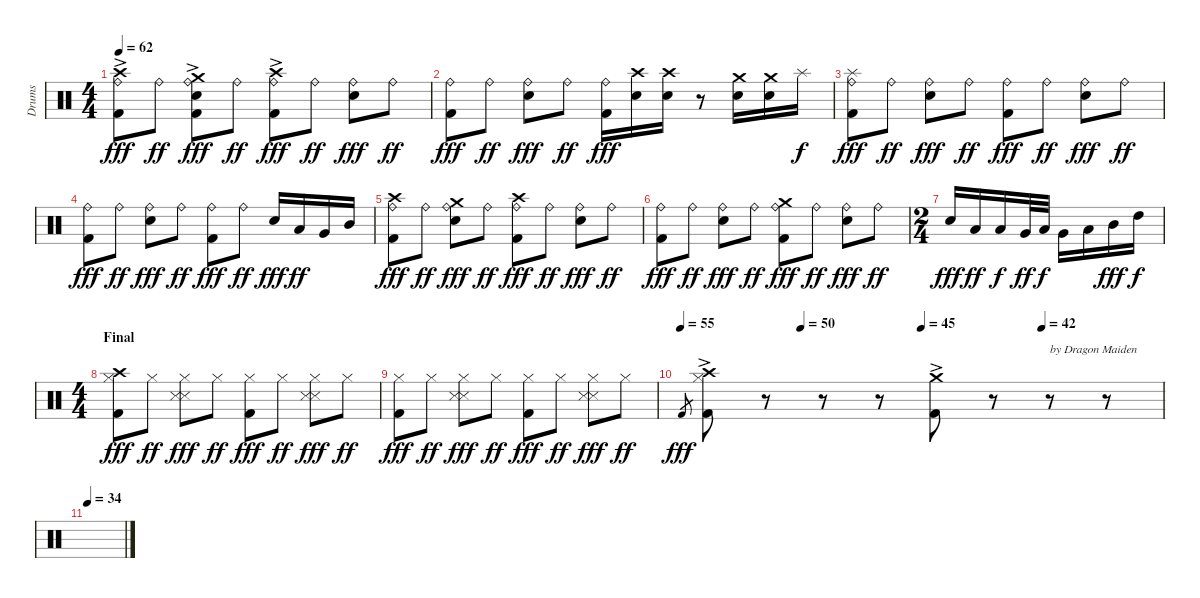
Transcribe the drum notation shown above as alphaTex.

\track ("Drums" "Drums") {instrument percussion}
\staff {score}
\articulation defaults
\ts (4 4)
\tempo 62
\clef neutral
\ks c
("Crash high (hit)"{ac} "Ride (bell)" "Kick (hit) 2").8{dy fff} "Ride (bell)".8{dy ff} ("Crash medium (hit)"{ac} "Ride (bell)" "Electric Snare (hit)" "Kick (hit) 2").8{dy fff} "Ride (bell)".8{dy ff} ("Crash high (hit)"{ac} "Ride (bell)" "Kick (hit) 2").8{dy fff} "Ride (bell)".8{dy ff} ("Ride (bell)" "Electric Snare (hit)").8{dy fff} "Ride (bell)".8{dy ff} |
("Ride (bell)" "Kick (hit) 2").8{dy fff} "Ride (bell)".8{dy ff} ("Ride (bell)" "Electric Snare (hit)").8{dy fff} "Ride (bell)".8{dy ff} ("Ride (bell)" "Kick (hit) 2").16{dy fff} ("Crash high (hit)" "Electric Snare (hit)").16 ("Crash high (hit)" "Electric Snare (hit)").16 r.8 ("Crash medium (hit)" "Electric Snare (hit)").16 ("Crash medium (hit)" "Electric Snare (hit)").16 "Splash (hit)".16{dy f} |
("Splash (hit)" "Ride (bell)" "Kick (hit) 2").8{dy fff} "Ride (bell)".8{dy ff} ("Ride (bell)" "Electric Snare (hit)").8{dy fff} "Ride (bell)".8{dy ff} ("Ride (bell)" "Kick (hit) 2").8{dy fff} "Ride (bell)".8{dy ff} ("Ride (bell)" "Electric Snare (hit)").8{dy fff} "Ride (bell)".8{dy ff} |
("Ride (bell)" "Kick (hit) 2").8{dy fff} "Ride (bell)".8{dy ff} ("Ride (bell)" "Electric Snare (hit)").8{dy fff} "Ride (bell)".8{dy ff} ("Ride (bell)" "Kick (hit) 2").8{dy fff} "Ride (bell)".8{dy ff} "Electric Snare (hit)".16{dy fff} "Low Tom (hit)".16{dy ff} "Very Low Tom (hit)".16 "Mid Tom (hit)".16 |
("Crash high (hit)" "Ride (bell)" "Kick (hit) 2").8{dy fff} "Ride (bell)".8{dy ff} ("Crash medium (hit)" "Ride (bell)" "Electric Snare (hit)").8{dy fff} "Ride (bell)".8{dy ff} ("Crash high (hit)" "Ride (bell)" "Kick (hit) 2").8{dy fff} "Ride (bell)".8{dy ff} ("Ride (bell)" "Electric Snare (hit)").8{dy fff} "Ride (bell)".8{dy ff} |
("Ride (bell)" "Kick (hit) 2").8{dy fff} "Ride (bell)".8{dy ff} ("Ride (bell)" "Electric Snare (hit)").8{dy fff} "Ride (bell)".8{dy ff} ("Crash medium (hit)" "Ride (bell)" "Kick (hit) 2").8{dy fff} "Ride (bell)".8{dy ff} ("Ride (bell)" "Electric Snare (hit)").8{dy fff} "Ride (bell)".8{dy ff} |
\ts (2 4)
"Electric Snare (hit)".16{dy fff} "Low Tom (hit)".16{dy ff} "Low Tom (hit)".16{dy f} "Very Low Tom (hit)".32{dy ff} "Low Tom (hit)".32{dy f} "Very Low Tom (hit)".16 "Low Tom (hit)".16 "Mid Tom (hit)".16{dy fff} "High Tom (hit)".16{dy f} |
\ts (4 4)
\section ("" "Final")
("Crash high (hit)" "Hi-Hat (closed)" "Kick (hit) 2").8{dy fff} "Hi-Hat (closed)".8{dy ff} ("Hi-Hat (closed)" "Snare (side stick) 3" "Snare (side stick) 3").8{dy fff} "Hi-Hat (closed)".8{dy ff} ("Hi-Hat (closed)" "Kick (hit) 2").8{dy fff} "Hi-Hat (closed)".8{dy ff} ("Hi-Hat (closed)" "Snare (side stick) 3" "Snare (side stick) 3").8{dy fff} "Hi-Hat (closed)".8{dy ff} |
("Hi-Hat (closed)" "Kick (hit) 2").8{dy fff} "Hi-Hat (closed)".8{dy ff} ("Hi-Hat (closed)" "Snare (side stick) 3" "Snare (side stick) 3").8{dy fff} "Hi-Hat (closed)".8{dy ff} ("Hi-Hat (closed)" "Kick (hit) 2").8{dy fff} "Hi-Hat (closed)".8{dy ff} ("Hi-Hat (closed)" "Snare (side stick) 3" "Snare (side stick) 3").8{dy fff} "Hi-Hat (closed)".8{dy ff} |
\tempo 55
\tempo (50 0.25)
\tempo (45 0.5)
\tempo (42 0.75)
"Kick (hit) 2".8{gr dy fff} ("Crash high (hit)"{ac} "Hi-Hat (closed)" "Kick (hit) 2").8 r.8 r.8 r.8 ("Crash medium (hit)"{ac} "Kick (hit) 2").8 r.8 r.8{txt "by Dragon Maiden"} r.8 |
\tempo 34
